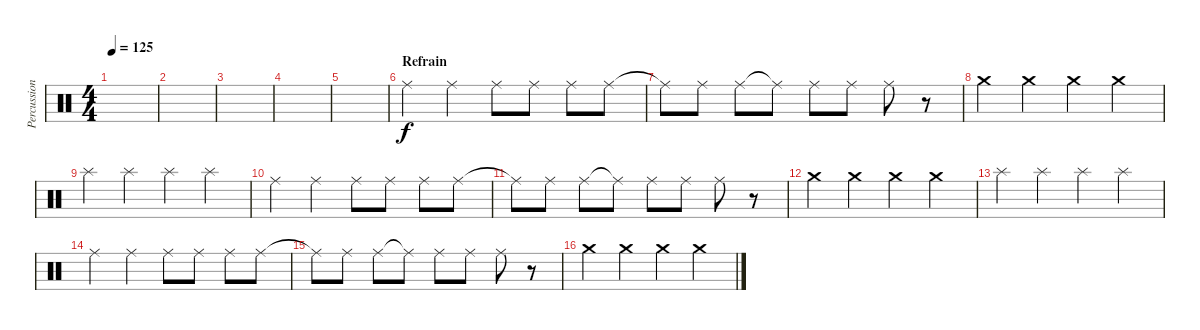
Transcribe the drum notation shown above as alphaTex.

\track ("Percussions" "Percussion") {instrument percussion}
\staff {score}
\articulation defaults
\ts (4 4)
\tempo 125
\clef neutral
\ks c
|
|
|
|
|
\section ("" "Refrain")
"Ride (middle)".4 "Ride (middle)".4 "Ride (middle)".8 "Ride (middle)".8 "Ride (middle)".8 "Ride (middle)".8 |
"Ride (middle)"{t}.8 "Ride (middle)".8 "Ride (middle)".8 "Ride (middle)"{t}.8 "Ride (middle)".8 "Ride (middle)".8 "Ride (middle)".8 r.8 |
"Crash medium (hit)".4 "Crash medium (hit)".4 "Crash medium (hit)".4 "Crash medium (hit)".4 |
"Splash (hit)".4 "Splash (hit)".4 "Splash (hit)".4 "Splash (hit)".4 |
"Ride (middle)".4 "Ride (middle)".4 "Ride (middle)".8 "Ride (middle)".8 "Ride (middle)".8 "Ride (middle)".8 |
"Ride (middle)"{t}.8 "Ride (middle)".8 "Ride (middle)".8 "Ride (middle)"{t}.8 "Ride (middle)".8 "Ride (middle)".8 "Ride (middle)".8 r.8 |
"Crash medium (hit)".4 "Crash medium (hit)".4 "Crash medium (hit)".4 "Crash medium (hit)".4 |
"Splash (hit)".4 "Splash (hit)".4 "Splash (hit)".4 "Splash (hit)".4 |
"Ride (middle)".4 "Ride (middle)".4 "Ride (middle)".8 "Ride (middle)".8 "Ride (middle)".8 "Ride (middle)".8 |
"Ride (middle)"{t}.8 "Ride (middle)".8 "Ride (middle)".8 "Ride (middle)"{t}.8 "Ride (middle)".8 "Ride (middle)".8 "Ride (middle)".8 r.8 |
"Crash medium (hit)".4 "Crash medium (hit)".4 "Crash medium (hit)".4 "Crash medium (hit)".4
